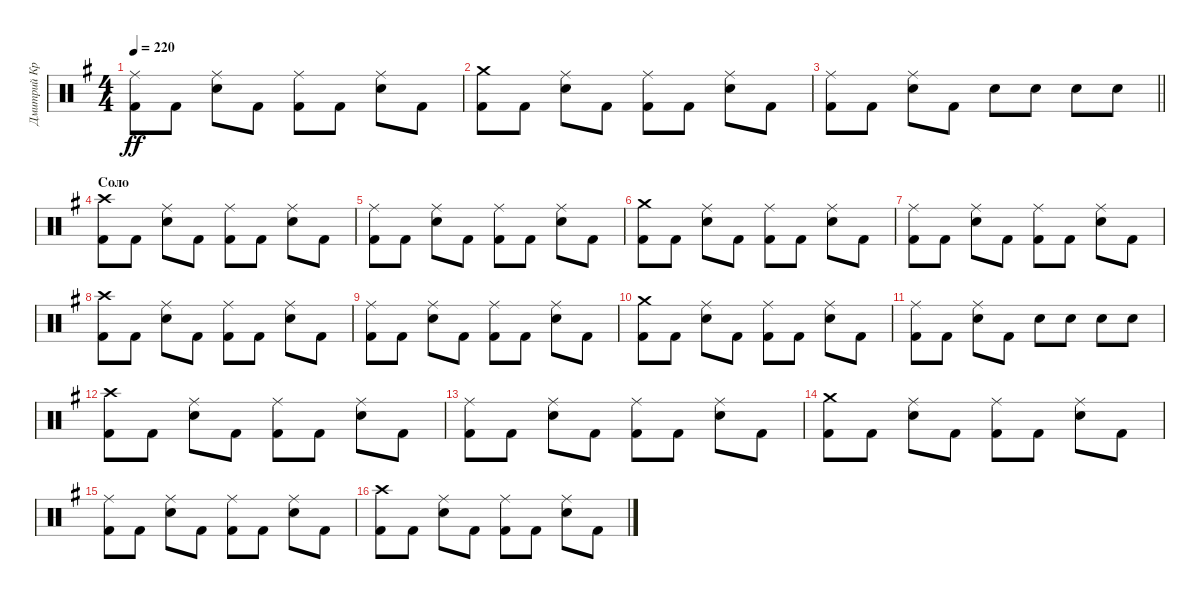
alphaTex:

\track ("Дмитрий Кривенков" "Дмитрий Кр") {instrument percussion}
\staff {score}
\articulation defaults
\ts (4 4)
\tempo 220
\clef neutral
\ks g
("Ride (middle)" "Kick (hit) 2").8{dy ff} "Kick (hit) 2".8 ("Ride (middle)" "Snare (hit) 2").8 "Kick (hit) 2".8 ("Ride (middle)" "Kick (hit) 2").8 "Kick (hit) 2".8 ("Ride (middle)" "Snare (hit) 2").8 "Kick (hit) 2".8 |
("Crash medium (hit)" "Kick (hit) 2").8 "Kick (hit) 2".8 ("Ride (middle)" "Snare (hit) 2").8 "Kick (hit) 2".8 ("Ride (middle)" "Kick (hit) 2").8 "Kick (hit) 2".8 ("Ride (middle)" "Snare (hit) 2").8 "Kick (hit) 2".8 |
\barLineRight lightlight
("Ride (middle)" "Kick (hit) 2").8 "Kick (hit) 2".8 ("Ride (middle)" "Snare (hit) 2").8 "Kick (hit) 2".8 "Snare (hit) 2".8 "Snare (hit) 2".8 "Snare (hit) 2".8 "Snare (hit) 2".8 |
\section ("" "Соло")
("Crash high (hit)" "Kick (hit) 2").8 "Kick (hit) 2".8 ("Ride (middle)" "Snare (hit) 2").8 "Kick (hit) 2".8 ("Ride (middle)" "Kick (hit) 2").8 "Kick (hit) 2".8 ("Ride (middle)" "Snare (hit) 2").8 "Kick (hit) 2".8 |
("Ride (middle)" "Kick (hit) 2").8 "Kick (hit) 2".8 ("Ride (middle)" "Snare (hit) 2").8 "Kick (hit) 2".8 ("Ride (middle)" "Kick (hit) 2").8 "Kick (hit) 2".8 ("Ride (middle)" "Snare (hit) 2").8 "Kick (hit) 2".8 |
("Crash medium (hit)" "Kick (hit) 2").8 "Kick (hit) 2".8 ("Ride (middle)" "Snare (hit) 2").8 "Kick (hit) 2".8 ("Ride (middle)" "Kick (hit) 2").8 "Kick (hit) 2".8 ("Ride (middle)" "Snare (hit) 2").8 "Kick (hit) 2".8 |
("Ride (middle)" "Kick (hit) 2").8 "Kick (hit) 2".8 ("Ride (middle)" "Snare (hit) 2").8 "Kick (hit) 2".8 ("Ride (middle)" "Kick (hit) 2").8 "Kick (hit) 2".8 ("Ride (middle)" "Snare (hit) 2").8 "Kick (hit) 2".8 |
("Crash high (hit)" "Kick (hit) 2").8 "Kick (hit) 2".8 ("Ride (middle)" "Snare (hit) 2").8 "Kick (hit) 2".8 ("Ride (middle)" "Kick (hit) 2").8 "Kick (hit) 2".8 ("Ride (middle)" "Snare (hit) 2").8 "Kick (hit) 2".8 |
("Ride (middle)" "Kick (hit) 2").8 "Kick (hit) 2".8 ("Ride (middle)" "Snare (hit) 2").8 "Kick (hit) 2".8 ("Ride (middle)" "Kick (hit) 2").8 "Kick (hit) 2".8 ("Ride (middle)" "Snare (hit) 2").8 "Kick (hit) 2".8 |
("Crash medium (hit)" "Kick (hit) 2").8 "Kick (hit) 2".8 ("Ride (middle)" "Snare (hit) 2").8 "Kick (hit) 2".8 ("Ride (middle)" "Kick (hit) 2").8 "Kick (hit) 2".8 ("Ride (middle)" "Snare (hit) 2").8 "Kick (hit) 2".8 |
("Ride (middle)" "Kick (hit) 2").8 "Kick (hit) 2".8 ("Ride (middle)" "Snare (hit) 2").8 "Kick (hit) 2".8 "Snare (hit) 2".8 "Snare (hit) 2".8 "Snare (hit) 2".8 "Snare (hit) 2".8 |
("Crash high (hit)" "Kick (hit) 2").8 "Kick (hit) 2".8 ("Ride (middle)" "Snare (hit) 2").8 "Kick (hit) 2".8 ("Ride (middle)" "Kick (hit) 2").8 "Kick (hit) 2".8 ("Ride (middle)" "Snare (hit) 2").8 "Kick (hit) 2".8 |
("Ride (middle)" "Kick (hit) 2").8 "Kick (hit) 2".8 ("Ride (middle)" "Snare (hit) 2").8 "Kick (hit) 2".8 ("Ride (middle)" "Kick (hit) 2").8 "Kick (hit) 2".8 ("Ride (middle)" "Snare (hit) 2").8 "Kick (hit) 2".8 |
("Crash medium (hit)" "Kick (hit) 2").8 "Kick (hit) 2".8 ("Ride (middle)" "Snare (hit) 2").8 "Kick (hit) 2".8 ("Ride (middle)" "Kick (hit) 2").8 "Kick (hit) 2".8 ("Ride (middle)" "Snare (hit) 2").8 "Kick (hit) 2".8 |
("Ride (middle)" "Kick (hit) 2").8 "Kick (hit) 2".8 ("Ride (middle)" "Snare (hit) 2").8 "Kick (hit) 2".8 ("Ride (middle)" "Kick (hit) 2").8 "Kick (hit) 2".8 ("Ride (middle)" "Snare (hit) 2").8 "Kick (hit) 2".8 |
("Crash high (hit)" "Kick (hit) 2").8 "Kick (hit) 2".8 ("Ride (middle)" "Snare (hit) 2").8 "Kick (hit) 2".8 ("Ride (middle)" "Kick (hit) 2").8 "Kick (hit) 2".8 ("Ride (middle)" "Snare (hit) 2").8 "Kick (hit) 2".8
